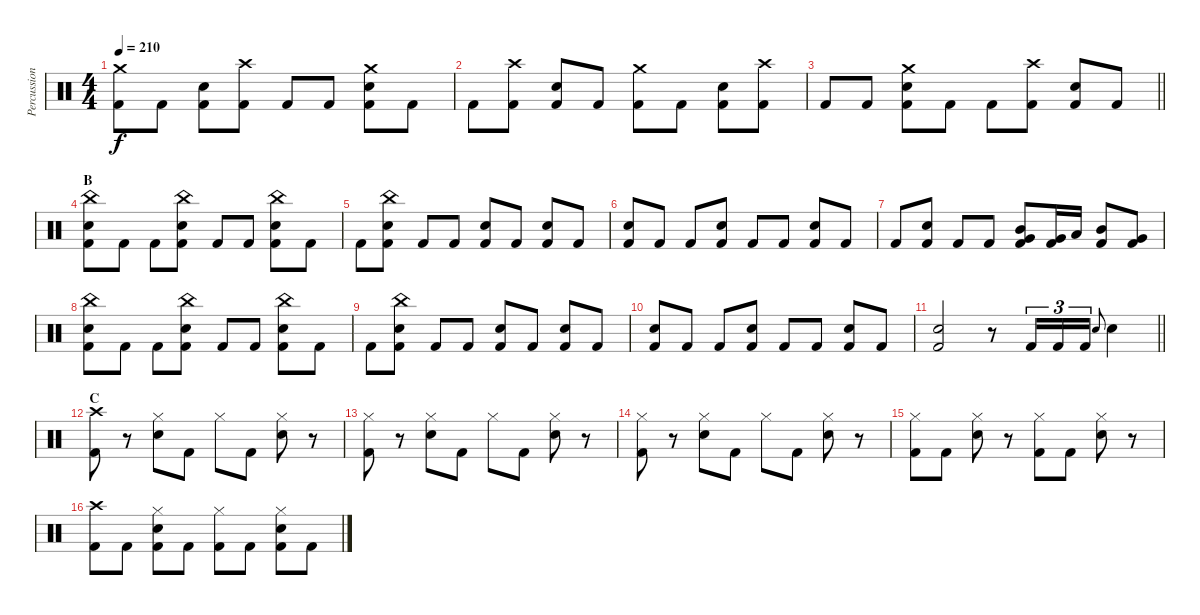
\track ("Percussion" "Percussion") {instrument percussion}
\staff {score}
\articulation defaults
\ts (4 4)
\tempo 210
\clef neutral
\ks c
("Crash medium (hit)" "Kick (hit) 2").8{dy f} "Kick (hit) 2".8 ("Electric Snare (hit)" "Kick (hit) 2").8 ("Crash high (hit)" "Kick (hit) 2").8 "Kick (hit) 2".8 "Kick (hit) 2".8 ("Crash medium (hit)" "Electric Snare (hit)" "Kick (hit) 2").8 "Kick (hit) 2".8 |
"Kick (hit) 2".8 ("Crash high (hit)" "Kick (hit) 2").8 ("Electric Snare (hit)" "Kick (hit) 2").8 "Kick (hit) 2".8 ("Crash medium (hit)" "Kick (hit) 2").8 "Kick (hit) 2".8 ("Electric Snare (hit)" "Kick (hit) 2").8 ("Crash high (hit)" "Kick (hit) 2").8 |
\barLineRight lightlight "Kick (hit) 2".8 "Kick (hit) 2".8
("Crash medium (hit)" "Electric Snare (hit)" "Kick (hit) 2").8 "Kick (hit) 2".8 "Kick (hit) 2".8 ("Crash high (hit)" "Kick (hit) 2").8 ("Electric Snare (hit)" "Kick (hit) 2").8 "Kick (hit) 2".8 |
\section ("" "B")
("China (hit)" "Electric Snare (hit)" "Kick (hit) 2").8 "Kick (hit) 2".8 "Kick (hit) 2".8 ("China (hit)" "Electric Snare (hit)" "Kick (hit) 2").8 "Kick (hit) 2".8 "Kick (hit) 2".8 ("China (hit)" "Electric Snare (hit)" "Kick (hit) 2").8 "Kick (hit) 2".8 |
"Kick (hit) 2".8 ("China (hit)" "Electric Snare (hit)" "Kick (hit) 2").8 "Kick (hit) 2".8 "Kick (hit) 2".8 ("Electric Snare (hit)" "Kick (hit) 2").8 "Kick (hit) 2".8 ("Electric Snare (hit)" "Kick (hit) 2").8 "Kick (hit) 2".8 |
("Electric Snare (hit)" "Kick (hit) 2").8 "Kick (hit) 2".8 "Kick (hit) 2".8 ("Electric Snare (hit)" "Kick (hit) 2").8 "Kick (hit) 2".8 "Kick (hit) 2".8 ("Electric Snare (hit)" "Kick (hit) 2").8 "Kick (hit) 2".8 |
"Kick (hit) 2".8 ("Electric Snare (hit)" "Kick (hit) 2").8 "Kick (hit) 2".8 "Kick (hit) 2".8 ("Mid Tom (hit)" "Very Low Tom (hit)" "Kick (hit) 2").8 ("Very Low Tom (hit)" "Kick (hit) 2").16 "Low Tom (hit)".16 ("Mid Tom (hit)" "Kick (hit) 2").8 ("Very Low Tom (hit)" "Kick (hit) 2").8 |
("China (hit)" "Electric Snare (hit)" "Kick (hit) 2").8 "Kick (hit) 2".8 "Kick (hit) 2".8 ("China (hit)" "Electric Snare (hit)" "Kick (hit) 2").8 "Kick (hit) 2".8 "Kick (hit) 2".8 ("China (hit)" "Electric Snare (hit)" "Kick (hit) 2").8 "Kick (hit) 2".8 |
"Kick (hit) 2".8 ("China (hit)" "Electric Snare (hit)" "Kick (hit) 2").8 "Kick (hit) 2".8 "Kick (hit) 2".8 ("Electric Snare (hit)" "Kick (hit) 2").8 "Kick (hit) 2".8 ("Electric Snare (hit)" "Kick (hit) 2").8 "Kick (hit) 2".8 |
("Electric Snare (hit)" "Kick (hit) 2").8 "Kick (hit) 2".8 "Kick (hit) 2".8 ("Electric Snare (hit)" "Kick (hit) 2").8 "Kick (hit) 2".8 "Kick (hit) 2".8 ("Electric Snare (hit)" "Kick (hit) 2").8 "Kick (hit) 2".8 |
\barLineRight lightlight
("Electric Snare (hit)" "Kick (hit) 2").2 r.8 "Kick (hit) 2".16{tu (3 2)} "Kick (hit) 2".16{tu (3 2)} "Kick (hit) 2".16{tu (3 2)} "Electric Snare (hit)".8{gr onbeat} "Electric Snare (hit)".4 |
\section ("" "C")
("Crash high (hit)" "Kick (hit) 2").8 r.8 ("Hi-Hat (closed)" "Electric Snare (hit)").8 "Kick (hit) 2".8 "Hi-Hat (closed)".8 "Kick (hit) 2".8 ("Hi-Hat (closed)" "Electric Snare (hit)").8 r.8 |
("Hi-Hat (closed)" "Kick (hit) 2").8 r.8 ("Hi-Hat (closed)" "Electric Snare (hit)").8 "Kick (hit) 2".8 "Hi-Hat (closed)".8 "Kick (hit) 2".8 ("Hi-Hat (closed)" "Electric Snare (hit)").8 r.8 |
("Hi-Hat (closed)" "Kick (hit) 2").8 r.8 ("Hi-Hat (closed)" "Electric Snare (hit)").8 "Kick (hit) 2".8 "Hi-Hat (closed)".8 "Kick (hit) 2".8 ("Hi-Hat (closed)" "Electric Snare (hit)").8 r.8 |
("Hi-Hat (closed)" "Kick (hit) 2").8 "Kick (hit) 2".8 ("Hi-Hat (closed)" "Electric Snare (hit)").8 r.8 ("Hi-Hat (closed)" "Kick (hit) 2").8 "Kick (hit) 2".8 ("Hi-Hat (closed)" "Electric Snare (hit)").8 r.8 |
("Crash high (hit)" "Kick (hit) 2").8 "Kick (hit) 2".8 ("Hi-Hat (closed)" "Electric Snare (hit)" "Kick (hit) 2").8 "Kick (hit) 2".8 ("Hi-Hat (closed)" "Kick (hit) 2").8 "Kick (hit) 2".8 ("Hi-Hat (closed)" "Electric Snare (hit)" "Kick (hit) 2").8 "Kick (hit) 2".8
